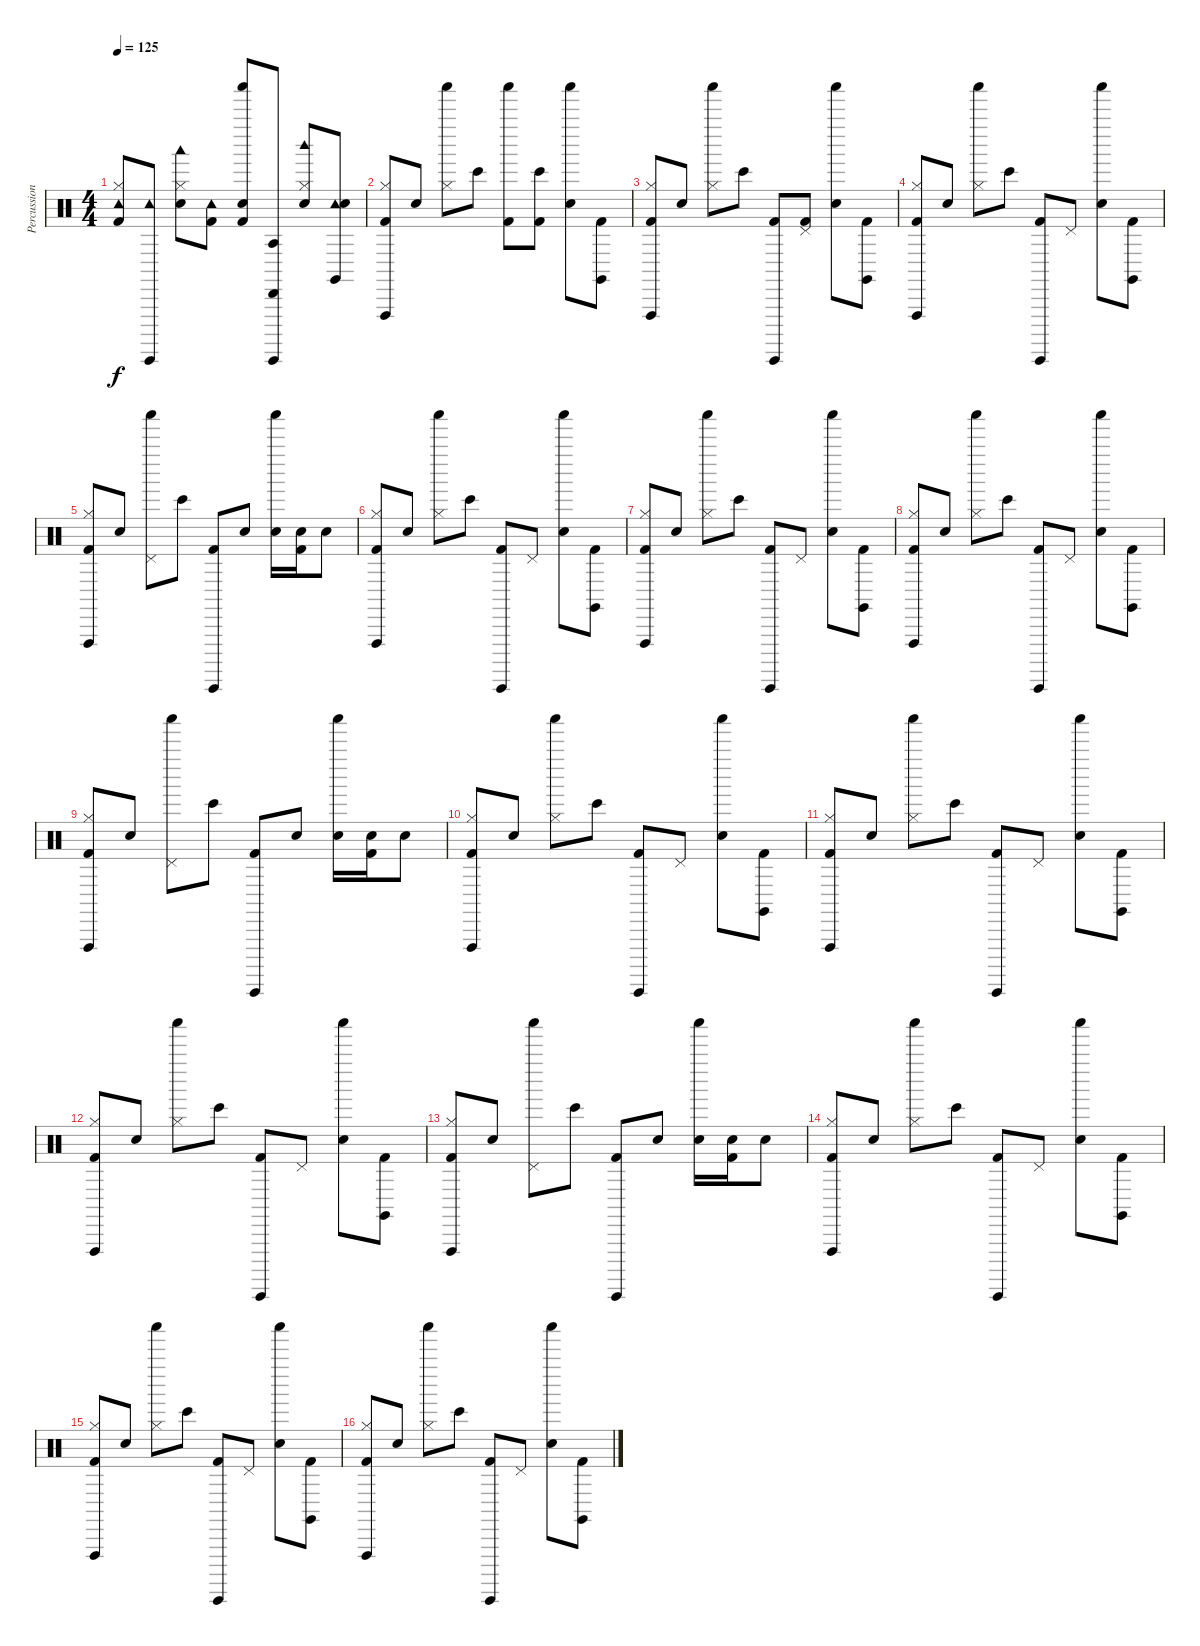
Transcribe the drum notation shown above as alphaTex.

\track ("Percussion" "Percussion") {instrument percussion}
\staff {score}
\articulation defaults
\ts (4 4)
\tempo 125
\clef neutral
\ks c
("Tambourine (hit)" "Hi-Hat (closed)" "Kick (hit) 2").8{dy f} ("Tambourine (hit)" "Guiro (hit)").8 ("Electric Snare (hit)" "Hi-Hat (closed)" "Woodblock low (hit)").8 ("Tambourine (hit)" "Kick (hit) 2").8 ("Shaker (hit)" "Electric Snare (hit)" "Kick (hit) 2").8 ("Cabasa (hit)" "Guiro (hit)" "Agogo tow (hit)").8 ("Electric Snare (hit)" "Hi-Hat (closed)" "Woodblock high (hit)").8 ("Tambourine (hit)" "Electric Snare (hit)" "Claves (hit)").8 |
("Kick (hit) 2" "Hi-Hat (closed)" "Vibraslap (hit)").8 "Electric Snare (hit)".8 ("Hi-Hat (closed)" "Shaker (hit)").8 "Bongo High (hit)".8 ("Kick (hit) 2" "Shaker (hit)").8 ("Kick (hit) 2" "Bongo High (hit)").8 ("Electric Snare (hit)" "Shaker (hit)").8 ("Kick (hit) 2" "Claves (hit)").8 |
("Kick (hit) 2" "Hi-Hat (closed)" "Vibraslap (hit)").8 "Electric Snare (hit)".8 ("Hi-Hat (closed)" "Shaker (hit)").8 "Bongo High (hit)".8 ("Kick (hit) 2" "Guiro (hit)").8 ("Kick (hit) 2" "Pedal Hi-Hat (hit)").8 ("Electric Snare (hit)" "Shaker (hit)").8 ("Kick (hit) 2" "Claves (hit)").8 |
("Kick (hit) 2" "Hi-Hat (closed)" "Vibraslap (hit)").8 "Electric Snare (hit)".8 ("Hi-Hat (closed)" "Shaker (hit)").8 "Bongo High (hit)".8 ("Kick (hit) 2" "Guiro (hit)").8 "Pedal Hi-Hat (hit)".8 ("Electric Snare (hit)" "Shaker (hit)").8 ("Kick (hit) 2" "Claves (hit)").8 |
("Kick (hit) 2" "Hi-Hat (closed)" "Vibraslap (hit)").8 "Electric Snare (hit)".8 ("Pedal Hi-Hat (hit)" "Shaker (hit)").8 "Bongo High (hit)".8 ("Kick (hit) 2" "Guiro (hit)").8 "Electric Snare (hit)".8 ("Electric Snare (hit)" "Shaker (hit)").16 ("Kick (hit) 2" "Electric Snare (hit)").16 "Electric Snare (hit)".8 |
("Kick (hit) 2" "Hi-Hat (closed)" "Vibraslap (hit)").8 "Electric Snare (hit)".8 ("Hi-Hat (closed)" "Shaker (hit)").8 "Bongo High (hit)".8 ("Kick (hit) 2" "Guiro (hit)").8 "Pedal Hi-Hat (hit)".8 ("Electric Snare (hit)" "Shaker (hit)").8 ("Kick (hit) 2" "Claves (hit)").8 |
("Kick (hit) 2" "Hi-Hat (closed)" "Vibraslap (hit)").8 "Electric Snare (hit)".8 ("Hi-Hat (closed)" "Shaker (hit)").8 "Bongo High (hit)".8 ("Kick (hit) 2" "Guiro (hit)").8 "Pedal Hi-Hat (hit)".8 ("Electric Snare (hit)" "Shaker (hit)").8 ("Kick (hit) 2" "Claves (hit)").8 |
("Kick (hit) 2" "Hi-Hat (closed)" "Vibraslap (hit)").8 "Electric Snare (hit)".8 ("Hi-Hat (closed)" "Shaker (hit)").8 "Bongo High (hit)".8 ("Kick (hit) 2" "Guiro (hit)").8 "Pedal Hi-Hat (hit)".8 ("Electric Snare (hit)" "Shaker (hit)").8 ("Kick (hit) 2" "Claves (hit)").8 |
("Kick (hit) 2" "Hi-Hat (closed)" "Vibraslap (hit)").8 "Electric Snare (hit)".8 ("Pedal Hi-Hat (hit)" "Shaker (hit)").8 "Bongo High (hit)".8 ("Kick (hit) 2" "Guiro (hit)").8 "Electric Snare (hit)".8 ("Electric Snare (hit)" "Shaker (hit)").16 ("Kick (hit) 2" "Electric Snare (hit)").16 "Electric Snare (hit)".8 |
("Kick (hit) 2" "Hi-Hat (closed)" "Vibraslap (hit)").8 "Electric Snare (hit)".8 ("Hi-Hat (closed)" "Shaker (hit)").8 "Bongo High (hit)".8 ("Kick (hit) 2" "Guiro (hit)").8 "Pedal Hi-Hat (hit)".8 ("Electric Snare (hit)" "Shaker (hit)").8 ("Kick (hit) 2" "Claves (hit)").8 |
("Kick (hit) 2" "Hi-Hat (closed)" "Vibraslap (hit)").8 "Electric Snare (hit)".8 ("Hi-Hat (closed)" "Shaker (hit)").8 "Bongo High (hit)".8 ("Kick (hit) 2" "Guiro (hit)").8 "Pedal Hi-Hat (hit)".8 ("Electric Snare (hit)" "Shaker (hit)").8 ("Kick (hit) 2" "Claves (hit)").8 |
("Kick (hit) 2" "Hi-Hat (closed)" "Vibraslap (hit)").8 "Electric Snare (hit)".8 ("Hi-Hat (closed)" "Shaker (hit)").8 "Bongo High (hit)".8 ("Kick (hit) 2" "Guiro (hit)").8 "Pedal Hi-Hat (hit)".8 ("Electric Snare (hit)" "Shaker (hit)").8 ("Kick (hit) 2" "Claves (hit)").8 |
("Kick (hit) 2" "Hi-Hat (closed)" "Vibraslap (hit)").8 "Electric Snare (hit)".8 ("Pedal Hi-Hat (hit)" "Shaker (hit)").8 "Bongo High (hit)".8 ("Kick (hit) 2" "Guiro (hit)").8 "Electric Snare (hit)".8 ("Electric Snare (hit)" "Shaker (hit)").16 ("Kick (hit) 2" "Electric Snare (hit)").16 "Electric Snare (hit)".8 |
("Kick (hit) 2" "Hi-Hat (closed)" "Vibraslap (hit)").8 "Electric Snare (hit)".8 ("Hi-Hat (closed)" "Shaker (hit)").8 "Bongo High (hit)".8 ("Kick (hit) 2" "Guiro (hit)").8 "Pedal Hi-Hat (hit)".8 ("Electric Snare (hit)" "Shaker (hit)").8 ("Kick (hit) 2" "Claves (hit)").8 |
("Kick (hit) 2" "Hi-Hat (closed)" "Vibraslap (hit)").8 "Electric Snare (hit)".8 ("Hi-Hat (closed)" "Shaker (hit)").8 "Bongo High (hit)".8 ("Kick (hit) 2" "Guiro (hit)").8 "Pedal Hi-Hat (hit)".8 ("Electric Snare (hit)" "Shaker (hit)").8 ("Kick (hit) 2" "Claves (hit)").8 |
("Kick (hit) 2" "Hi-Hat (closed)" "Vibraslap (hit)").8 "Electric Snare (hit)".8 ("Hi-Hat (closed)" "Shaker (hit)").8 "Bongo High (hit)".8 ("Kick (hit) 2" "Guiro (hit)").8 "Pedal Hi-Hat (hit)".8 ("Electric Snare (hit)" "Shaker (hit)").8 ("Kick (hit) 2" "Claves (hit)").8
